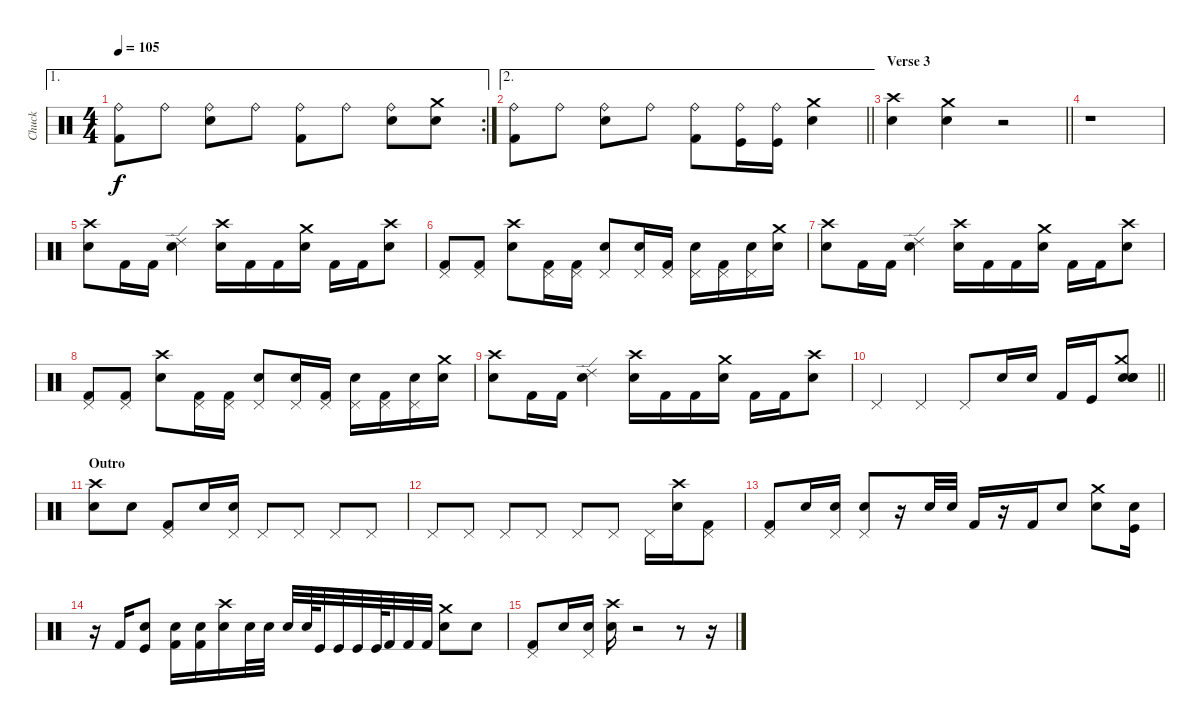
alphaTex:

\track ("Chuck" "Chuck") {instrument percussion}
\staff {score}
\articulation defaults
\ae 1
\rc 2
\ts (4 4)
\tempo 105
\clef neutral
\ks c
("Ride (bell)" "Kick (hit) 2").8{dy f} "Ride (bell)".8 ("Ride (bell)" "Snare (hit) 2").8 "Ride (bell)".8 ("Ride (bell)" "Kick (hit) 2").8 "Ride (bell)".8 ("Ride (bell)" "Snare (hit) 2").8 ("Crash medium (hit)" "Snare (hit) 2").8 |
\ae 2
\barLineRight lightlight
("Ride (bell)" "Kick (hit) 2").8 "Ride (bell)".8 ("Ride (bell)" "Snare (hit) 2").8 "Ride (bell)".8 ("Ride (bell)" "Kick (hit) 2").8 ("Ride (bell)" "Kick (hit)").16 ("Ride (bell)" "Kick (hit)").16 ("Crash medium (hit)" "Electric Snare (hit)").4 |
\section ("" "Verse 3")
\barLineRight lightlight
("Crash high (hit)" "Snare (hit) 2").4 ("Crash medium (hit)" "Electric Snare (hit)").4 r.2 |
r.1 |
("Crash high (hit)" "Snare (hit) 2").8 "Kick (hit) 2".16 "Kick (hit) 2".16 ("Ride (edge) 2" "Electric Snare (hit)").4 ("Crash high (hit)" "Snare (hit) 2").16 "Kick (hit) 2".16 "Kick (hit) 2".16 ("Crash medium (hit)" "Snare (hit) 2").16 "Kick (hit) 2".16 "Kick (hit) 2".16 ("Crash high (hit)" "Snare (hit) 2").8 |
("Pedal Hi-Hat (hit)" "Kick (hit) 2").8 ("Pedal Hi-Hat (hit)" "Kick (hit) 2").8 ("Crash high (hit)" "Snare (hit) 2").8 ("Pedal Hi-Hat (hit)" "Kick (hit) 2").16 ("Pedal Hi-Hat (hit)" "Kick (hit) 2").16 ("Pedal Hi-Hat (hit)" "Snare (hit) 2").8 ("Pedal Hi-Hat (hit)" "Snare (hit) 2").16 ("Pedal Hi-Hat (hit)" "Kick (hit) 2").16 ("Pedal Hi-Hat (hit)" "Snare (hit) 2").16 ("Pedal Hi-Hat (hit)" "Kick (hit) 2").16 ("Pedal Hi-Hat (hit)" "Electric Snare (hit)").16 ("Crash medium (hit)" "Electric Snare (hit)").16 |
("Crash high (hit)" "Snare (hit) 2").8 "Kick (hit) 2".16 "Kick (hit) 2".16 ("Ride (edge) 2" "Electric Snare (hit)").4 ("Crash high (hit)" "Snare (hit) 2").16 "Kick (hit) 2".16 "Kick (hit) 2".16 ("Crash medium (hit)" "Snare (hit) 2").16 "Kick (hit) 2".16 "Kick (hit) 2".16 ("Crash high (hit)" "Snare (hit) 2").8 |
("Pedal Hi-Hat (hit)" "Kick (hit) 2").8 ("Pedal Hi-Hat (hit)" "Kick (hit) 2").8 ("Crash high (hit)" "Snare (hit) 2").8 ("Pedal Hi-Hat (hit)" "Kick (hit) 2").16 ("Pedal Hi-Hat (hit)" "Kick (hit) 2").16 ("Pedal Hi-Hat (hit)" "Snare (hit) 2").8 ("Pedal Hi-Hat (hit)" "Snare (hit) 2").16 ("Pedal Hi-Hat (hit)" "Kick (hit) 2").16 ("Pedal Hi-Hat (hit)" "Snare (hit) 2").16 ("Pedal Hi-Hat (hit)" "Kick (hit) 2").16 ("Pedal Hi-Hat (hit)" "Electric Snare (hit)").16 ("Crash medium (hit)" "Electric Snare (hit)").16 |
("Crash high (hit)" "Snare (hit) 2").8 "Kick (hit) 2".16 "Kick (hit) 2".16 ("Ride (edge) 2" "Electric Snare (hit)").4 ("Crash high (hit)" "Snare (hit) 2").16 "Kick (hit) 2".16 "Kick (hit) 2".16 ("Crash medium (hit)" "Snare (hit) 2").16 "Kick (hit) 2".16 "Kick (hit) 2".16 ("Crash high (hit)" "Snare (hit) 2").8 |
\barLineRight lightlight "Pedal Hi-Hat (hit)".4 "Pedal Hi-Hat (hit)".4 "Pedal Hi-Hat (hit)".8 "Snare (hit) 2".16 "Electric Snare (hit)".16 "Kick (hit) 2".16 "Kick (hit)".16
("Crash medium (hit)" "Snare (hit) 2" "Electric Snare (hit)" "Electric Snare (hit)").8 |
\section ("" "Outro")
("Crash high (hit)" "Electric Snare (hit)").8 "Snare (hit) 2".8 ("Pedal Hi-Hat (hit)" "Kick (hit) 2").8 "Snare (hit) 2".16 ("Pedal Hi-Hat (hit)" "Snare (hit) 2").16 "Pedal Hi-Hat (hit)".8 "Pedal Hi-Hat (hit)".8 "Pedal Hi-Hat (hit)".8 "Pedal Hi-Hat (hit)".8 |
"Pedal Hi-Hat (hit)".8 "Pedal Hi-Hat (hit)".8 "Pedal Hi-Hat (hit)".8 "Pedal Hi-Hat (hit)".8 "Pedal Hi-Hat (hit)".8 "Pedal Hi-Hat (hit)".8 "Pedal Hi-Hat (hit)".16 ("Crash high (hit)" "Electric Snare (hit)").16 ("Pedal Hi-Hat (hit)" "Kick (hit) 2").8 |
("Pedal Hi-Hat (hit)" "Kick (hit) 2").8 "Snare (hit) 2".16 ("Pedal Hi-Hat (hit)" "Snare (hit) 2").16 ("Pedal Hi-Hat (hit)" "Electric Snare (hit)").8 r.16 "Electric Snare (hit)".32 "Snare (hit) 2".32 "Kick (hit) 2".16 r.16 "Kick (hit) 2".16 "Snare (hit) 2".8 ("Crash medium (hit)" "Electric Snare (hit)").8 ("Snare (hit) 2" "Kick (hit)").16 |
r.16 "Kick (hit) 2".16 ("Snare (hit) 2" "Kick (hit)").8 ("Electric Snare (hit)" "Kick (hit) 2").16 ("Snare (hit) 2" "Kick (hit) 2").16 ("Crash high (hit)" "Snare (hit) 2").16 "Snare (hit) 2".32 "Snare (hit) 2".32 "Snare (hit) 2".32 "Snare (hit) 2".64 "Kick (hit)".32 "Kick (hit)".32 "Kick (hit)".32 "Kick (hit)".64 "Kick (hit) 2".32 "Kick (hit) 2".32 "Kick (hit) 2".32 ("Crash medium (hit)" "Electric Snare (hit)").8 "Snare (hit) 2".8 |
("Pedal Hi-Hat (hit)" "Kick (hit) 2").8 "Snare (hit) 2".16 ("Pedal Hi-Hat (hit)" "Snare (hit) 2").16 ("Crash high (hit)" "Electric Snare (hit)").16 r.2 r.8 r.16
